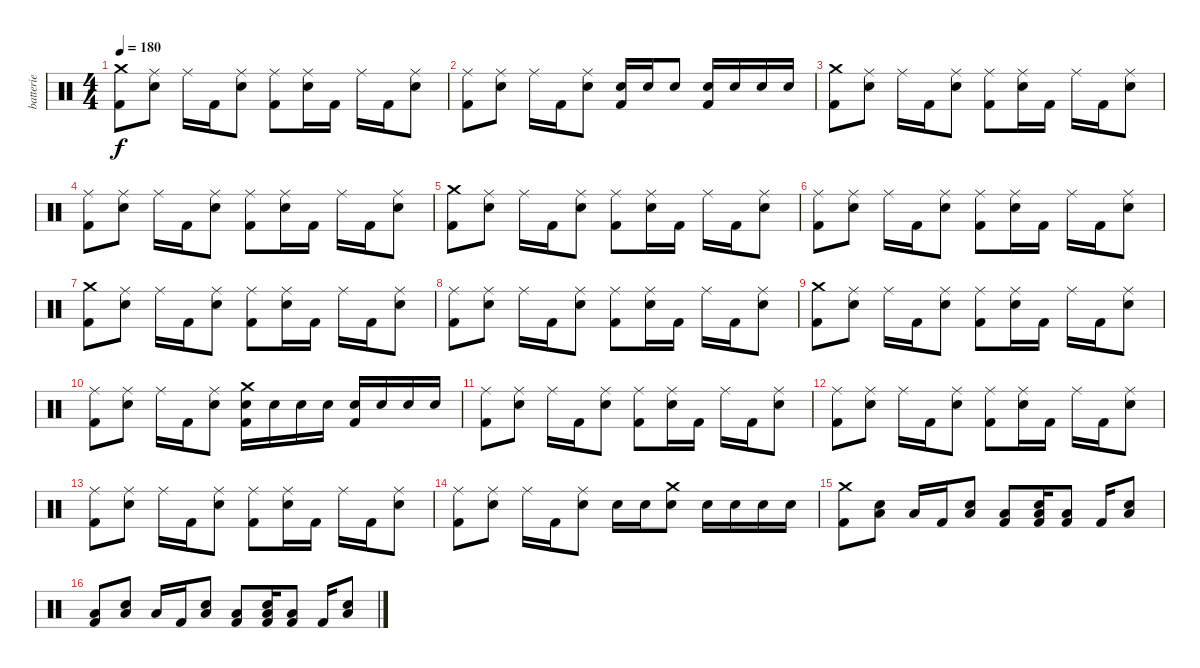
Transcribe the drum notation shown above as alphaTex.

\track ("batterie" "batterie") {instrument percussion}
\staff {score}
\articulation defaults
\ts (4 4)
\tempo 180
\clef neutral
\ks c
("Crash medium (hit)" "Kick (hit) 2").8{dy f} ("Ride (middle)" "Electric Snare (hit)").8 "Ride (middle)".16 "Kick (hit) 2".16 ("Ride (middle)" "Electric Snare (hit)").8 ("Ride (middle)" "Kick (hit) 2").8 ("Ride (middle)" "Electric Snare (hit)").16 "Kick (hit) 2".16 "Ride (middle)".16 "Kick (hit) 2".16 ("Ride (middle)" "Electric Snare (hit)").8 |
("Ride (middle)" "Kick (hit) 2").8 ("Ride (middle)" "Electric Snare (hit)").8 "Ride (middle)".16 "Kick (hit) 2".16 ("Ride (middle)" "Electric Snare (hit)").8 ("Electric Snare (hit)" "Kick (hit) 2").16 "Electric Snare (hit)".16 "Electric Snare (hit)".8 ("Electric Snare (hit)" "Kick (hit) 2").16 "Electric Snare (hit)".16 "Electric Snare (hit)".16 "Electric Snare (hit)".16 |
("Crash medium (hit)" "Kick (hit) 2").8 ("Ride (middle)" "Electric Snare (hit)").8 "Ride (middle)".16 "Kick (hit) 2".16 ("Ride (middle)" "Electric Snare (hit)").8 ("Ride (middle)" "Kick (hit) 2").8 ("Ride (middle)" "Electric Snare (hit)").16 "Kick (hit) 2".16 "Ride (middle)".16 "Kick (hit) 2".16 ("Ride (middle)" "Electric Snare (hit)").8 |
("Ride (middle)" "Kick (hit) 2").8 ("Ride (middle)" "Electric Snare (hit)").8 "Ride (middle)".16 "Kick (hit) 2".16 ("Ride (middle)" "Electric Snare (hit)").8 ("Ride (middle)" "Kick (hit) 2").8 ("Ride (middle)" "Electric Snare (hit)").16 "Kick (hit) 2".16 "Ride (middle)".16 "Kick (hit) 2".16 ("Ride (middle)" "Electric Snare (hit)").8 |
("Crash medium (hit)" "Kick (hit) 2").8 ("Ride (middle)" "Electric Snare (hit)").8 "Ride (middle)".16 "Kick (hit) 2".16 ("Ride (middle)" "Electric Snare (hit)").8 ("Ride (middle)" "Kick (hit) 2").8 ("Ride (middle)" "Electric Snare (hit)").16 "Kick (hit) 2".16 "Ride (middle)".16 "Kick (hit) 2".16 ("Ride (middle)" "Electric Snare (hit)").8 |
("Ride (middle)" "Kick (hit) 2").8 ("Ride (middle)" "Electric Snare (hit)").8 "Ride (middle)".16 "Kick (hit) 2".16 ("Ride (middle)" "Electric Snare (hit)").8 ("Ride (middle)" "Kick (hit) 2").8 ("Ride (middle)" "Electric Snare (hit)").16 "Kick (hit) 2".16 "Ride (middle)".16 "Kick (hit) 2".16 ("Ride (middle)" "Electric Snare (hit)").8 |
("Crash medium (hit)" "Kick (hit) 2").8 ("Ride (middle)" "Electric Snare (hit)").8 "Ride (middle)".16 "Kick (hit) 2".16 ("Ride (middle)" "Electric Snare (hit)").8 ("Ride (middle)" "Kick (hit) 2").8 ("Ride (middle)" "Electric Snare (hit)").16 "Kick (hit) 2".16 "Ride (middle)".16 "Kick (hit) 2".16 ("Ride (middle)" "Electric Snare (hit)").8 |
("Ride (middle)" "Kick (hit) 2").8 ("Ride (middle)" "Electric Snare (hit)").8 "Ride (middle)".16 "Kick (hit) 2".16 ("Ride (middle)" "Electric Snare (hit)").8 ("Ride (middle)" "Kick (hit) 2").8 ("Ride (middle)" "Electric Snare (hit)").16 "Kick (hit) 2".16 "Ride (middle)".16 "Kick (hit) 2".16 ("Ride (middle)" "Electric Snare (hit)").8 |
("Crash medium (hit)" "Kick (hit) 2").8 ("Ride (middle)" "Electric Snare (hit)").8 "Ride (middle)".16 "Kick (hit) 2".16 ("Ride (middle)" "Electric Snare (hit)").8 ("Ride (middle)" "Kick (hit) 2").8 ("Ride (middle)" "Electric Snare (hit)").16 "Kick (hit) 2".16 "Ride (middle)".16 "Kick (hit) 2".16 ("Ride (middle)" "Electric Snare (hit)").8 |
("Ride (middle)" "Kick (hit) 2").8 ("Ride (middle)" "Electric Snare (hit)").8 "Ride (middle)".16 "Kick (hit) 2".16 ("Ride (middle)" "Electric Snare (hit)").8 ("Crash medium (hit)" "Electric Snare (hit)" "Kick (hit) 2").16 "Electric Snare (hit)".16 "Electric Snare (hit)".16 "Electric Snare (hit)".16 ("Electric Snare (hit)" "Kick (hit) 2").16 "Electric Snare (hit)".16 "Electric Snare (hit)".16 "Electric Snare (hit)".16 |
("Ride (middle)" "Kick (hit) 2").8 ("Ride (middle)" "Electric Snare (hit)").8 "Ride (middle)".16 "Kick (hit) 2".16 ("Ride (middle)" "Electric Snare (hit)").8 ("Ride (middle)" "Kick (hit) 2").8 ("Ride (middle)" "Electric Snare (hit)").16 "Kick (hit) 2".16 "Ride (middle)".16 "Kick (hit) 2".16 ("Ride (middle)" "Electric Snare (hit)").8 |
("Ride (middle)" "Kick (hit) 2").8 ("Ride (middle)" "Electric Snare (hit)").8 "Ride (middle)".16 "Kick (hit) 2".16 ("Ride (middle)" "Electric Snare (hit)").8 ("Ride (middle)" "Kick (hit) 2").8 ("Ride (middle)" "Electric Snare (hit)").16 "Kick (hit) 2".16 "Ride (middle)".16 "Kick (hit) 2".16 ("Ride (middle)" "Electric Snare (hit)").8 |
("Ride (middle)" "Kick (hit) 2").8 ("Ride (middle)" "Electric Snare (hit)").8 "Ride (middle)".16 "Kick (hit) 2".16 ("Ride (middle)" "Electric Snare (hit)").8 ("Ride (middle)" "Kick (hit) 2").8 ("Ride (middle)" "Electric Snare (hit)").16 "Kick (hit) 2".16 "Ride (middle)".16 "Kick (hit) 2".16 ("Ride (middle)" "Electric Snare (hit)").8 |
("Ride (middle)" "Kick (hit) 2").8 ("Ride (middle)" "Electric Snare (hit)").8 "Ride (middle)".16 "Kick (hit) 2".16 ("Ride (middle)" "Electric Snare (hit)").8 "Electric Snare (hit)".16 "Electric Snare (hit)".16 ("Crash medium (hit)" "Electric Snare (hit)").8 "Electric Snare (hit)".16 "Electric Snare (hit)".16 "Electric Snare (hit)".16 "Electric Snare (hit)".16 |
("Crash medium (hit)" "Kick (hit) 2").8 ("Low Tom (hit)" "Electric Snare (hit)").8 "Low Tom (hit)".16 "Kick (hit) 2".16 ("Low Tom (hit)" "Electric Snare (hit)").8 ("Low Tom (hit)" "Kick (hit) 2").8 ("Low Tom (hit)" "Electric Snare (hit)" "Kick (hit) 2").16 ("Low Tom (hit)" "Kick (hit) 2").8 "Kick (hit) 2".16 ("Low Tom (hit)" "Electric Snare (hit)").8 |
("Low Tom (hit)" "Kick (hit) 2").8 ("Low Tom (hit)" "Electric Snare (hit)").8 "Low Tom (hit)".16 "Kick (hit) 2".16 ("Low Tom (hit)" "Electric Snare (hit)").8 ("Low Tom (hit)" "Kick (hit) 2").8 ("Low Tom (hit)" "Electric Snare (hit)" "Kick (hit) 2").16 ("Low Tom (hit)" "Kick (hit) 2").8 "Kick (hit) 2".16 ("Low Tom (hit)" "Electric Snare (hit)").8
